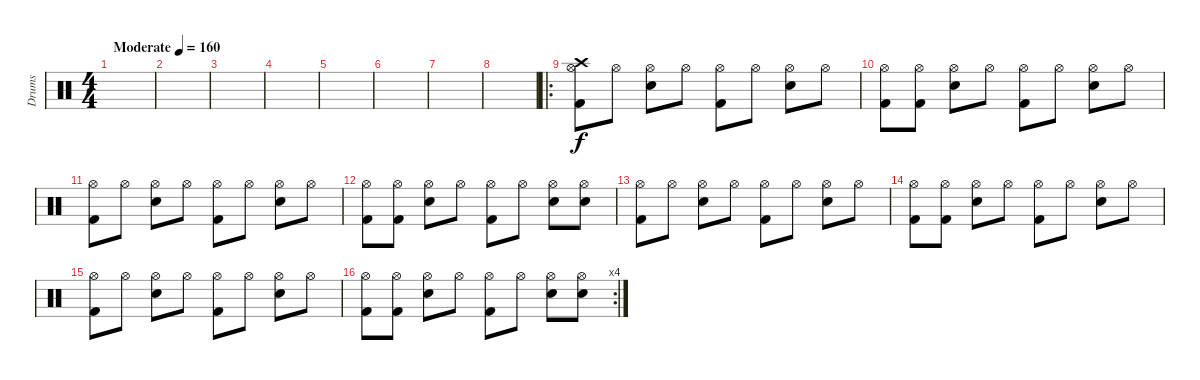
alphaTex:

\track ("Drums" "Drums") {instrument percussion}
\staff {score}
\articulation defaults
\ts (4 4)
\tempo (160 "Moderate")
\clef neutral
\ks c
|
|
|
|
|
|
|
|
\ro
("Kick (hit) 2" "Hi-Hat (open)" "Crash high (hit)").8 "Hi-Hat (open)".8 ("Snare (hit) 2" "Hi-Hat (open)").8 "Hi-Hat (open)".8 ("Kick (hit) 2" "Hi-Hat (open)").8 "Hi-Hat (open)".8 ("Snare (hit) 2" "Hi-Hat (open)").8 "Hi-Hat (open)".8 |
("Kick (hit) 2" "Hi-Hat (open)").8 ("Kick (hit) 2" "Hi-Hat (open)").8 ("Snare (hit) 2" "Hi-Hat (open)").8 "Hi-Hat (open)".8 ("Kick (hit) 2" "Hi-Hat (open)").8 "Hi-Hat (open)".8 ("Snare (hit) 2" "Hi-Hat (open)").8 "Hi-Hat (open)".8 |
("Kick (hit) 2" "Hi-Hat (open)").8 "Hi-Hat (open)".8 ("Snare (hit) 2" "Hi-Hat (open)").8 "Hi-Hat (open)".8 ("Kick (hit) 2" "Hi-Hat (open)").8 "Hi-Hat (open)".8 ("Snare (hit) 2" "Hi-Hat (open)").8 "Hi-Hat (open)".8 |
("Kick (hit) 2" "Hi-Hat (open)").8 ("Kick (hit) 2" "Hi-Hat (open)").8 ("Snare (hit) 2" "Hi-Hat (open)").8 "Hi-Hat (open)".8 ("Kick (hit) 2" "Hi-Hat (open)").8 "Hi-Hat (open)".8 ("Snare (hit) 2" "Hi-Hat (open)").8 ("Snare (hit) 2" "Hi-Hat (open)").8 |
("Kick (hit) 2" "Hi-Hat (open)").8 "Hi-Hat (open)".8 ("Snare (hit) 2" "Hi-Hat (open)").8 "Hi-Hat (open)".8 ("Kick (hit) 2" "Hi-Hat (open)").8 "Hi-Hat (open)".8 ("Snare (hit) 2" "Hi-Hat (open)").8 "Hi-Hat (open)".8 |
("Kick (hit) 2" "Hi-Hat (open)").8 ("Kick (hit) 2" "Hi-Hat (open)").8 ("Snare (hit) 2" "Hi-Hat (open)").8 "Hi-Hat (open)".8 ("Kick (hit) 2" "Hi-Hat (open)").8 "Hi-Hat (open)".8 ("Snare (hit) 2" "Hi-Hat (open)").8 "Hi-Hat (open)".8 |
("Kick (hit) 2" "Hi-Hat (open)").8 "Hi-Hat (open)".8 ("Snare (hit) 2" "Hi-Hat (open)").8 "Hi-Hat (open)".8 ("Kick (hit) 2" "Hi-Hat (open)").8 "Hi-Hat (open)".8 ("Snare (hit) 2" "Hi-Hat (open)").8 "Hi-Hat (open)".8 |
\rc 4
("Kick (hit) 2" "Hi-Hat (open)").8 ("Kick (hit) 2" "Hi-Hat (open)").8 ("Snare (hit) 2" "Hi-Hat (open)").8 "Hi-Hat (open)".8 ("Kick (hit) 2" "Hi-Hat (open)").8 "Hi-Hat (open)".8 ("Snare (hit) 2" "Hi-Hat (open)").8 ("Snare (hit) 2" "Hi-Hat (open)").8
